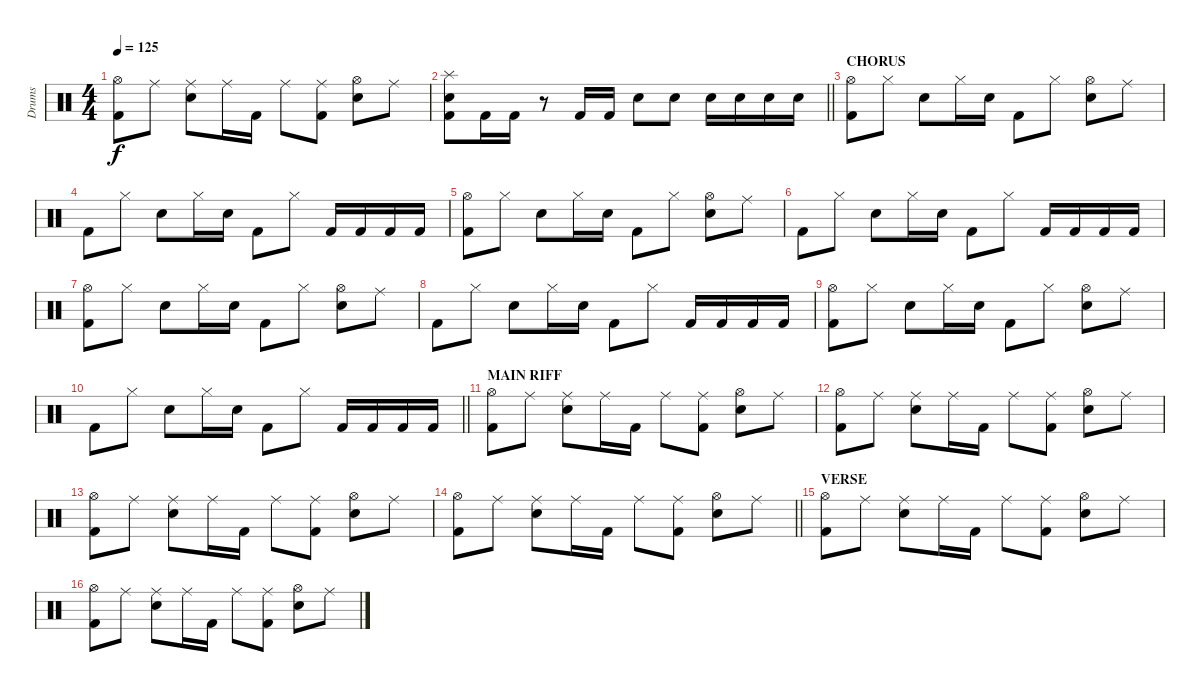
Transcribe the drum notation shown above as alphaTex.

\track ("Drums" "Drums") {instrument percussion}
\staff {score}
\articulation defaults
\ts (4 4)
\tempo 125
\clef neutral
\ks c
("Hi-Hat (open)" "Kick (hit) 2").8{dy f} "Ride (middle)".8 ("Ride (middle)" "Snare (hit) 2").8 "Ride (middle)".16 "Kick (hit) 2".16 "Ride (middle)".8 ("Ride (middle)" "Kick (hit) 2").8 ("Hi-Hat (open)" "Snare (hit) 2").8 "Ride (middle)".8 |
\barLineRight lightlight
("Splash (hit)" "Snare (hit) 2" "Kick (hit) 2").8 "Kick (hit) 2".16 "Kick (hit) 2".16 r.8 "Kick (hit) 2".16 "Kick (hit) 2".16 "Snare (hit) 2".8 "Snare (hit) 2".8 "Snare (hit) 2".16 "Snare (hit) 2".16 "Snare (hit) 2".16 "Snare (hit) 2".16 |
\section ("" "CHORUS")
("Hi-Hat (open)" "Kick (hit) 2").8 "Hi-Hat (closed)".8 "Snare (hit) 2".8 "Hi-Hat (closed)".16 "Snare (hit) 2".16 "Kick (hit) 2".8 "Hi-Hat (closed)".8 ("Hi-Hat (open)" "Snare (hit) 2").8 "Ride (middle)".8 |
"Kick (hit) 2".8 "Hi-Hat (closed)".8 "Snare (hit) 2".8 "Hi-Hat (closed)".16 "Snare (hit) 2".16 "Kick (hit) 2".8 "Hi-Hat (closed)".8 "Kick (hit) 2".16 "Kick (hit) 2".16 "Kick (hit) 2".16 "Kick (hit) 2".16 |
("Hi-Hat (open)" "Kick (hit) 2").8 "Hi-Hat (closed)".8 "Snare (hit) 2".8 "Hi-Hat (closed)".16 "Snare (hit) 2".16 "Kick (hit) 2".8 "Hi-Hat (closed)".8 ("Hi-Hat (open)" "Snare (hit) 2").8 "Ride (middle)".8 |
"Kick (hit) 2".8 "Hi-Hat (closed)".8 "Snare (hit) 2".8 "Hi-Hat (closed)".16 "Snare (hit) 2".16 "Kick (hit) 2".8 "Hi-Hat (closed)".8 "Kick (hit) 2".16 "Kick (hit) 2".16 "Kick (hit) 2".16 "Kick (hit) 2".16 |
("Hi-Hat (open)" "Kick (hit) 2").8 "Hi-Hat (closed)".8 "Snare (hit) 2".8 "Hi-Hat (closed)".16 "Snare (hit) 2".16 "Kick (hit) 2".8 "Hi-Hat (closed)".8 ("Hi-Hat (open)" "Snare (hit) 2").8 "Ride (middle)".8 |
"Kick (hit) 2".8 "Hi-Hat (closed)".8 "Snare (hit) 2".8 "Hi-Hat (closed)".16 "Snare (hit) 2".16 "Kick (hit) 2".8 "Hi-Hat (closed)".8 "Kick (hit) 2".16 "Kick (hit) 2".16 "Kick (hit) 2".16 "Kick (hit) 2".16 |
("Hi-Hat (open)" "Kick (hit) 2").8 "Hi-Hat (closed)".8 "Snare (hit) 2".8 "Hi-Hat (closed)".16 "Snare (hit) 2".16 "Kick (hit) 2".8 "Hi-Hat (closed)".8 ("Hi-Hat (open)" "Snare (hit) 2").8 "Ride (middle)".8 |
\barLineRight lightlight "Kick (hit) 2".8 "Hi-Hat (closed)".8 "Snare (hit) 2".8 "Hi-Hat (closed)".16 "Snare (hit) 2".16 "Kick (hit) 2".8 "Hi-Hat (closed)".8 "Kick (hit) 2".16 "Kick (hit) 2".16 "Kick (hit) 2".16 "Kick (hit) 2".16
|
\section ("" "MAIN RIFF")
("Hi-Hat (open)" "Kick (hit) 2").8 "Ride (middle)".8 ("Ride (middle)" "Snare (hit) 2").8 "Ride (middle)".16 "Kick (hit) 2".16 "Ride (middle)".8 ("Ride (middle)" "Kick (hit) 2").8 ("Hi-Hat (open)" "Snare (hit) 2").8 "Ride (middle)".8 |
("Hi-Hat (open)" "Kick (hit) 2").8 "Ride (middle)".8 ("Ride (middle)" "Snare (hit) 2").8 "Ride (middle)".16 "Kick (hit) 2".16 "Ride (middle)".8 ("Ride (middle)" "Kick (hit) 2").8 ("Hi-Hat (open)" "Snare (hit) 2").8 "Ride (middle)".8 |
("Hi-Hat (open)" "Kick (hit) 2").8 "Ride (middle)".8 ("Ride (middle)" "Snare (hit) 2").8 "Ride (middle)".16 "Kick (hit) 2".16 "Ride (middle)".8 ("Ride (middle)" "Kick (hit) 2").8 ("Hi-Hat (open)" "Snare (hit) 2").8 "Ride (middle)".8 |
\barLineRight lightlight
("Hi-Hat (open)" "Kick (hit) 2").8 "Ride (middle)".8 ("Ride (middle)" "Snare (hit) 2").8 "Ride (middle)".16 "Kick (hit) 2".16 "Ride (middle)".8 ("Ride (middle)" "Kick (hit) 2").8 ("Hi-Hat (open)" "Snare (hit) 2").8 "Ride (middle)".8 |
\section ("" "VERSE")
("Hi-Hat (open)" "Kick (hit) 2").8 "Ride (middle)".8 ("Ride (middle)" "Snare (hit) 2").8 "Ride (middle)".16 "Kick (hit) 2".16 "Ride (middle)".8 ("Ride (middle)" "Kick (hit) 2").8 ("Hi-Hat (open)" "Snare (hit) 2").8 "Ride (middle)".8 |
("Hi-Hat (open)" "Kick (hit) 2").8 "Ride (middle)".8 ("Ride (middle)" "Snare (hit) 2").8 "Ride (middle)".16 "Kick (hit) 2".16 "Ride (middle)".8 ("Ride (middle)" "Kick (hit) 2").8 ("Hi-Hat (open)" "Snare (hit) 2").8 "Ride (middle)".8
